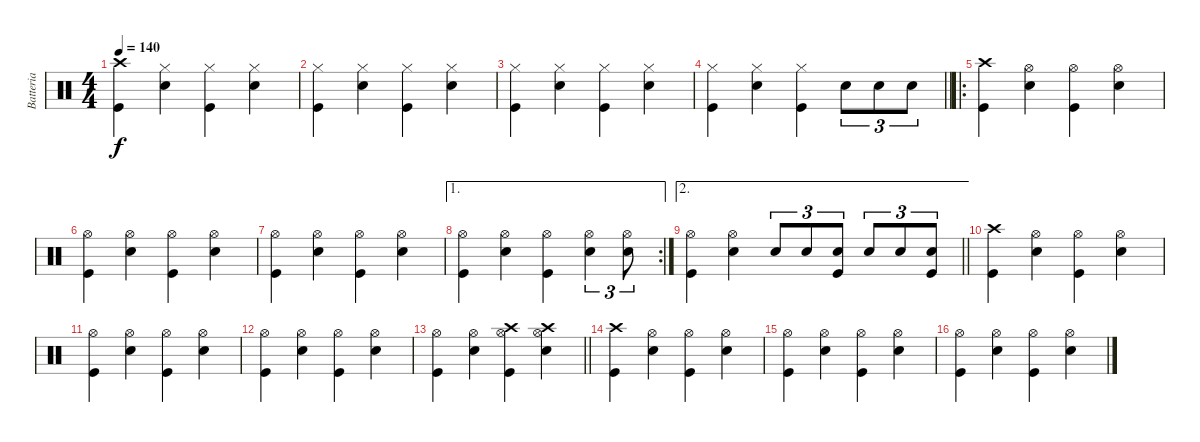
\track ("Batteria" "Batteria") {instrument percussion}
\staff {score}
\articulation defaults
\ts (4 4)
\tempo 140
\clef neutral
\ks c
("Crash high (hit)" "Kick (hit)").4{dy f} ("Snare (hit) 2" "Hi-Hat (closed)").4 ("Hi-Hat (closed)" "Kick (hit)").4 ("Hi-Hat (closed)" "Snare (hit) 2").4 |
("Hi-Hat (closed)" "Kick (hit)").4 ("Snare (hit) 2" "Hi-Hat (closed)").4 ("Hi-Hat (closed)" "Kick (hit)").4 ("Hi-Hat (closed)" "Snare (hit) 2").4 |
("Hi-Hat (closed)" "Kick (hit)").4 ("Snare (hit) 2" "Hi-Hat (closed)").4 ("Hi-Hat (closed)" "Kick (hit)").4 ("Hi-Hat (closed)" "Snare (hit) 2").4 |
\barLineRight lightlight
("Hi-Hat (closed)" "Kick (hit)").4 ("Snare (hit) 2" "Hi-Hat (closed)").4 ("Hi-Hat (closed)" "Kick (hit)").4 "Snare (hit) 2".8{tu (3 2)} "Snare (hit) 2".8{tu (3 2)} "Snare (hit) 2".8{tu (3 2)} |
\ro
("Crash high (hit)" "Kick (hit)").4 ("Snare (hit) 2" "Hi-Hat (open)").4 ("Hi-Hat (open)" "Kick (hit)").4 ("Hi-Hat (open)" "Snare (hit) 2").4 |
("Hi-Hat (open)" "Kick (hit)").4 ("Snare (hit) 2" "Hi-Hat (open)").4 ("Hi-Hat (open)" "Kick (hit)").4 ("Snare (hit) 2" "Hi-Hat (open)").4 |
("Hi-Hat (open)" "Kick (hit)").4 ("Snare (hit) 2" "Hi-Hat (open)").4 ("Hi-Hat (open)" "Kick (hit)").4 ("Snare (hit) 2" "Hi-Hat (open)").4 |
\ae 1
\rc 2
("Hi-Hat (open)" "Kick (hit)").4 ("Snare (hit) 2" "Hi-Hat (open)").4 ("Hi-Hat (open)" "Kick (hit)").4 ("Hi-Hat (open)" "Snare (hit) 2").4{tu (3 2)} ("Hi-Hat (open)" "Snare (hit) 2").8{tu (3 2)} |
\ae 2
\barLineRight lightlight
("Hi-Hat (open)" "Kick (hit)").4 ("Snare (hit) 2" "Hi-Hat (open)").4 "Snare (hit) 2".8{tu (3 2)} "Snare (hit) 2".8{tu (3 2)} ("Snare (hit) 2" "Kick (hit)").8{tu (3 2)} "Snare (hit) 2".8{tu (3 2)} "Snare (hit) 2".8{tu (3 2)} ("Snare (hit) 2" "Kick (hit)").8{tu (3 2)} |
("Crash high (hit)" "Kick (hit)").4 ("Snare (hit) 2" "Hi-Hat (open)").4 ("Hi-Hat (open)" "Kick (hit)").4 ("Hi-Hat (open)" "Snare (hit) 2").4 |
("Hi-Hat (open)" "Kick (hit)").4 ("Snare (hit) 2" "Hi-Hat (open)").4 ("Hi-Hat (open)" "Kick (hit)").4 ("Snare (hit) 2" "Hi-Hat (open)").4 |
("Hi-Hat (open)" "Kick (hit)").4 ("Snare (hit) 2" "Hi-Hat (open)").4 ("Hi-Hat (open)" "Kick (hit)").4 ("Snare (hit) 2" "Hi-Hat (open)").4 |
\barLineRight lightlight
("Hi-Hat (open)" "Kick (hit)").4 ("Snare (hit) 2" "Hi-Hat (open)").4 ("Hi-Hat (open)" "Kick (hit)" "Crash high (hit)").4 ("Snare (hit) 2" "Hi-Hat (open)" "Crash high (hit)").4 |
("Crash high (hit)" "Kick (hit)").4 ("Snare (hit) 2" "Hi-Hat (open)").4 ("Hi-Hat (open)" "Kick (hit)").4 ("Hi-Hat (open)" "Snare (hit) 2").4 |
("Hi-Hat (open)" "Kick (hit)").4 ("Snare (hit) 2" "Hi-Hat (open)").4 ("Hi-Hat (open)" "Kick (hit)").4 ("Snare (hit) 2" "Hi-Hat (open)").4 |
("Hi-Hat (open)" "Kick (hit)").4 ("Snare (hit) 2" "Hi-Hat (open)").4 ("Hi-Hat (open)" "Kick (hit)").4 ("Snare (hit) 2" "Hi-Hat (open)").4
